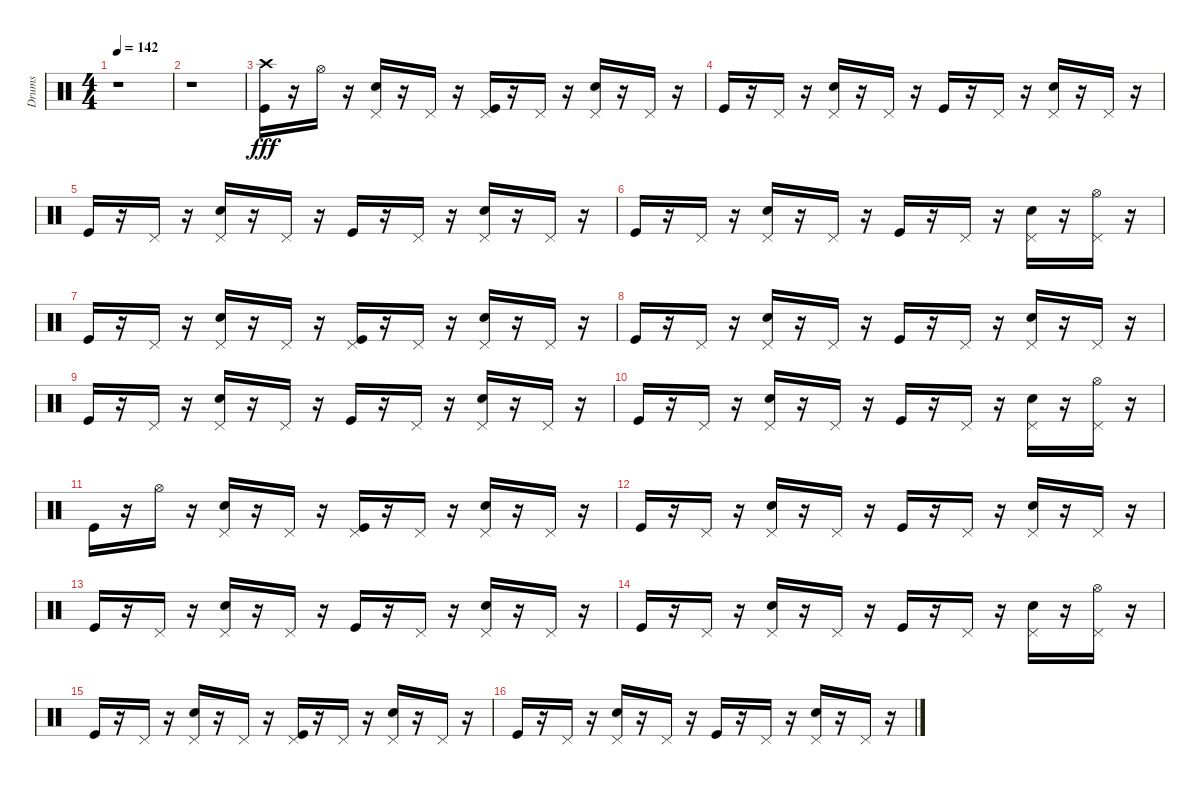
\track ("Drums" "Drums") {instrument percussion}
\staff {score}
\articulation defaults
\ts (4 4)
\tempo 142
\clef neutral
\ks c
r.1{dy fff} |
r.1 |
("Kick (hit)" "Crash high (hit)").16 r.16 "Hi-Hat (open)".16 r.16 ("Snare (hit) 2" "Pedal Hi-Hat (hit)").16 r.16 "Pedal Hi-Hat (hit)".16 r.16 ("Kick (hit)" "Pedal Hi-Hat (hit)").16 r.16 "Pedal Hi-Hat (hit)".16 r.16 ("Snare (hit) 2" "Pedal Hi-Hat (hit)").16 r.16 "Pedal Hi-Hat (hit)".16 r.16 |
"Kick (hit)".16 r.16 "Pedal Hi-Hat (hit)".16 r.16 ("Snare (hit) 2" "Pedal Hi-Hat (hit)").16 r.16 "Pedal Hi-Hat (hit)".16 r.16 "Kick (hit)".16 r.16 "Pedal Hi-Hat (hit)".16 r.16 ("Snare (hit) 2" "Pedal Hi-Hat (hit)").16 r.16 "Pedal Hi-Hat (hit)".16 r.16 |
"Kick (hit)".16 r.16 "Pedal Hi-Hat (hit)".16 r.16 ("Snare (hit) 2" "Pedal Hi-Hat (hit)").16 r.16 "Pedal Hi-Hat (hit)".16 r.16 "Kick (hit)".16 r.16 "Pedal Hi-Hat (hit)".16 r.16 ("Snare (hit) 2" "Pedal Hi-Hat (hit)").16 r.16 "Pedal Hi-Hat (hit)".16 r.16 |
"Kick (hit)".16 r.16 "Pedal Hi-Hat (hit)".16 r.16 ("Snare (hit) 2" "Pedal Hi-Hat (hit)").16 r.16 "Pedal Hi-Hat (hit)".16 r.16 "Kick (hit)".16 r.16 "Pedal Hi-Hat (hit)".16 r.16 ("Snare (hit) 2" "Pedal Hi-Hat (hit)").16 r.16 ("Pedal Hi-Hat (hit)" "Hi-Hat (open)").16 r.16 |
"Kick (hit)".16 r.16 "Pedal Hi-Hat (hit)".16 r.16 ("Snare (hit) 2" "Pedal Hi-Hat (hit)").16 r.16 "Pedal Hi-Hat (hit)".16 r.16 ("Kick (hit)" "Pedal Hi-Hat (hit)").16 r.16 "Pedal Hi-Hat (hit)".16 r.16 ("Snare (hit) 2" "Pedal Hi-Hat (hit)").16 r.16 "Pedal Hi-Hat (hit)".16 r.16 |
"Kick (hit)".16 r.16 "Pedal Hi-Hat (hit)".16 r.16 ("Snare (hit) 2" "Pedal Hi-Hat (hit)").16 r.16 "Pedal Hi-Hat (hit)".16 r.16 "Kick (hit)".16 r.16 "Pedal Hi-Hat (hit)".16 r.16 ("Snare (hit) 2" "Pedal Hi-Hat (hit)").16 r.16 "Pedal Hi-Hat (hit)".16 r.16 |
"Kick (hit)".16 r.16 "Pedal Hi-Hat (hit)".16 r.16 ("Snare (hit) 2" "Pedal Hi-Hat (hit)").16 r.16 "Pedal Hi-Hat (hit)".16 r.16 "Kick (hit)".16 r.16 "Pedal Hi-Hat (hit)".16 r.16 ("Snare (hit) 2" "Pedal Hi-Hat (hit)").16 r.16 "Pedal Hi-Hat (hit)".16 r.16 |
"Kick (hit)".16 r.16 "Pedal Hi-Hat (hit)".16 r.16 ("Snare (hit) 2" "Pedal Hi-Hat (hit)").16 r.16 "Pedal Hi-Hat (hit)".16 r.16 "Kick (hit)".16 r.16 "Pedal Hi-Hat (hit)".16 r.16 ("Snare (hit) 2" "Pedal Hi-Hat (hit)").16 r.16 ("Pedal Hi-Hat (hit)" "Hi-Hat (open)").16 r.16 |
"Kick (hit)".16 r.16 "Hi-Hat (open)".16 r.16 ("Snare (hit) 2" "Pedal Hi-Hat (hit)").16 r.16 "Pedal Hi-Hat (hit)".16 r.16 ("Kick (hit)" "Pedal Hi-Hat (hit)").16 r.16 "Pedal Hi-Hat (hit)".16 r.16 ("Snare (hit) 2" "Pedal Hi-Hat (hit)").16 r.16 "Pedal Hi-Hat (hit)".16 r.16 |
"Kick (hit)".16 r.16 "Pedal Hi-Hat (hit)".16 r.16 ("Snare (hit) 2" "Pedal Hi-Hat (hit)").16 r.16 "Pedal Hi-Hat (hit)".16 r.16 "Kick (hit)".16 r.16 "Pedal Hi-Hat (hit)".16 r.16 ("Snare (hit) 2" "Pedal Hi-Hat (hit)").16 r.16 "Pedal Hi-Hat (hit)".16 r.16 |
"Kick (hit)".16 r.16 "Pedal Hi-Hat (hit)".16 r.16 ("Snare (hit) 2" "Pedal Hi-Hat (hit)").16 r.16 "Pedal Hi-Hat (hit)".16 r.16 "Kick (hit)".16 r.16 "Pedal Hi-Hat (hit)".16 r.16 ("Snare (hit) 2" "Pedal Hi-Hat (hit)").16 r.16 "Pedal Hi-Hat (hit)".16 r.16 |
"Kick (hit)".16 r.16 "Pedal Hi-Hat (hit)".16 r.16 ("Snare (hit) 2" "Pedal Hi-Hat (hit)").16 r.16 "Pedal Hi-Hat (hit)".16 r.16 "Kick (hit)".16 r.16 "Pedal Hi-Hat (hit)".16 r.16 ("Snare (hit) 2" "Pedal Hi-Hat (hit)").16 r.16 ("Pedal Hi-Hat (hit)" "Hi-Hat (open)").16 r.16 |
"Kick (hit)".16 r.16 "Pedal Hi-Hat (hit)".16 r.16 ("Snare (hit) 2" "Pedal Hi-Hat (hit)").16 r.16 "Pedal Hi-Hat (hit)".16 r.16 ("Kick (hit)" "Pedal Hi-Hat (hit)").16 r.16 "Pedal Hi-Hat (hit)".16 r.16 ("Snare (hit) 2" "Pedal Hi-Hat (hit)").16 r.16 "Pedal Hi-Hat (hit)".16 r.16 |
"Kick (hit)".16 r.16 "Pedal Hi-Hat (hit)".16 r.16 ("Snare (hit) 2" "Pedal Hi-Hat (hit)").16 r.16 "Pedal Hi-Hat (hit)".16 r.16 "Kick (hit)".16 r.16 "Pedal Hi-Hat (hit)".16 r.16 ("Snare (hit) 2" "Pedal Hi-Hat (hit)").16 r.16 "Pedal Hi-Hat (hit)".16 r.16
